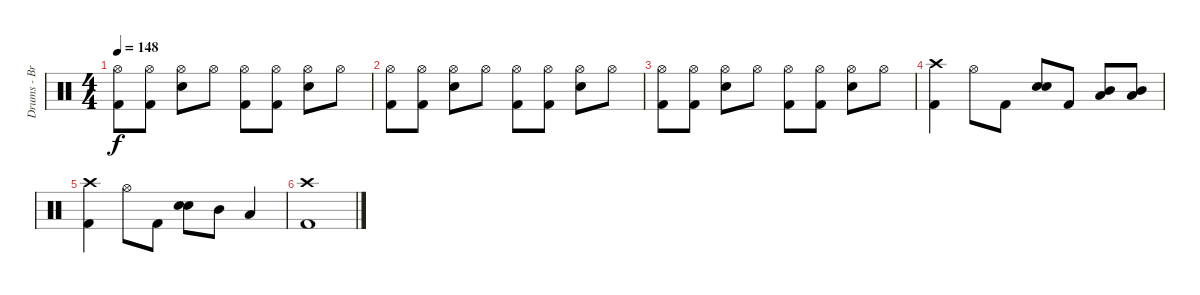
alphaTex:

\track ("Drums - Brandon Barnes" "Drums - Br") {instrument percussion}
\staff {score}
\articulation defaults
\ts (4 4)
\tempo 148
\clef neutral
\ks c
("Hi-Hat (open)" "Kick (hit) 2").8{dy f} ("Hi-Hat (open)" "Kick (hit) 2").8 ("Hi-Hat (open)" "Snare (hit) 2").8 "Hi-Hat (open)".8 ("Hi-Hat (open)" "Kick (hit) 2").8 ("Hi-Hat (open)" "Kick (hit) 2").8 ("Hi-Hat (open)" "Snare (hit) 2").8 "Hi-Hat (open)".8 |
("Hi-Hat (open)" "Kick (hit) 2").8 ("Hi-Hat (open)" "Kick (hit) 2").8 ("Hi-Hat (open)" "Snare (hit) 2").8 "Hi-Hat (open)".8 ("Hi-Hat (open)" "Kick (hit) 2").8 ("Hi-Hat (open)" "Kick (hit) 2").8 ("Hi-Hat (open)" "Snare (hit) 2").8 "Hi-Hat (open)".8 |
("Hi-Hat (open)" "Kick (hit) 2").8 ("Hi-Hat (open)" "Kick (hit) 2").8 ("Hi-Hat (open)" "Snare (hit) 2").8 "Hi-Hat (open)".8 ("Hi-Hat (open)" "Kick (hit) 2").8 ("Hi-Hat (open)" "Kick (hit) 2").8 ("Hi-Hat (open)" "Snare (hit) 2").8 "Hi-Hat (open)".8 |
("Kick (hit) 2" "Crash high (hit)").4 "Hi-Hat (open)".8 "Kick (hit) 2".8 ("Snare (hit) 2" "Electric Snare (hit)").8 "Kick (hit) 2".8 ("Low Floor Tom (hit)" "Mid Tom (hit)").8 ("Mid Tom (hit)" "Low Floor Tom (hit)").8 |
("Kick (hit) 2" "Crash high (hit)").4 "Hi-Hat (open)".8 "Kick (hit) 2".8 ("Snare (hit) 2" "Electric Snare (hit)").8 "Mid Tom (hit)".8 "Low Floor Tom (hit)".4 |
("Kick (hit) 2" "Crash high (hit)").1
